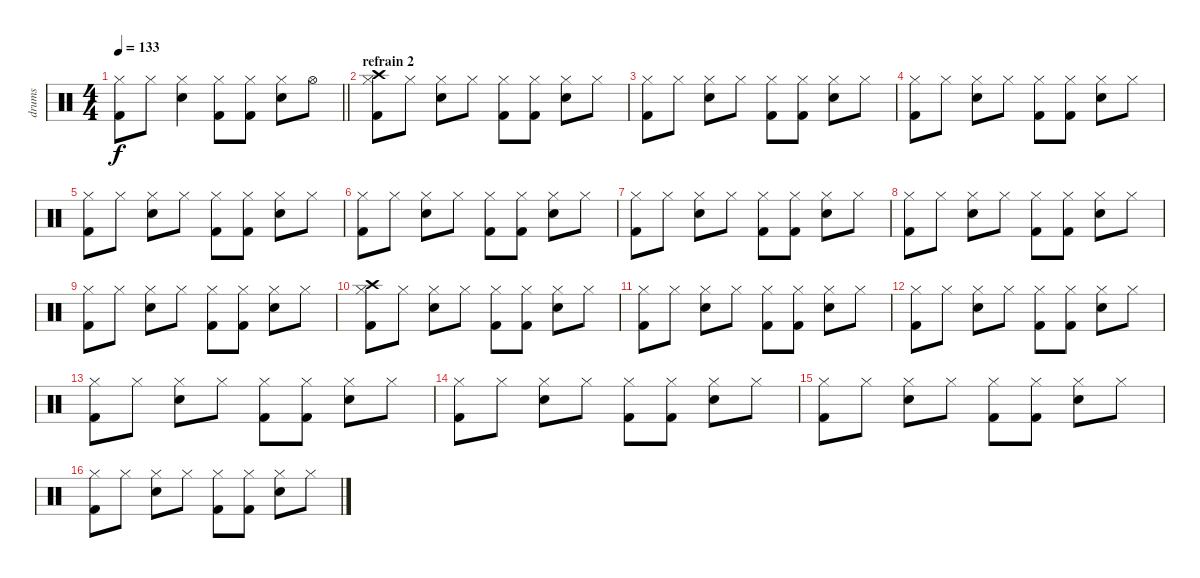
\track ("drums" "drums") {instrument percussion}
\staff {score}
\articulation defaults
\ts (4 4)
\tempo 133
\clef neutral
\barLineRight lightlight
\ks c
("Hi-Hat (closed)" "Kick (hit) 2").8{dy f} "Hi-Hat (closed)".8 ("Hi-Hat (closed)" "Snare (hit) 2").4 ("Hi-Hat (closed)" "Kick (hit) 2").8 ("Hi-Hat (closed)" "Kick (hit) 2").8 ("Hi-Hat (closed)" "Snare (hit) 2").8 "Hi-Hat (open)".8 |
\section ("" "refrain 2")
("Crash high (hit)" "Hi-Hat (closed)" "Kick (hit) 2").8 "Hi-Hat (closed)".8 ("Hi-Hat (closed)" "Snare (hit) 2").8 "Hi-Hat (closed)".8 ("Hi-Hat (closed)" "Kick (hit) 2").8 ("Hi-Hat (closed)" "Kick (hit) 2").8 ("Hi-Hat (closed)" "Snare (hit) 2").8 "Hi-Hat (closed)".8 |
("Hi-Hat (closed)" "Kick (hit) 2").8 "Hi-Hat (closed)".8 ("Hi-Hat (closed)" "Snare (hit) 2").8 "Hi-Hat (closed)".8 ("Hi-Hat (closed)" "Kick (hit) 2").8 ("Hi-Hat (closed)" "Kick (hit) 2").8 ("Hi-Hat (closed)" "Snare (hit) 2").8 "Hi-Hat (closed)".8 |
("Hi-Hat (closed)" "Kick (hit) 2").8 "Hi-Hat (closed)".8 ("Hi-Hat (closed)" "Snare (hit) 2").8 "Hi-Hat (closed)".8 ("Hi-Hat (closed)" "Kick (hit) 2").8 ("Hi-Hat (closed)" "Kick (hit) 2").8 ("Hi-Hat (closed)" "Snare (hit) 2").8 "Hi-Hat (closed)".8 |
("Hi-Hat (closed)" "Kick (hit) 2").8 "Hi-Hat (closed)".8 ("Hi-Hat (closed)" "Snare (hit) 2").8 "Hi-Hat (closed)".8 ("Hi-Hat (closed)" "Kick (hit) 2").8 ("Hi-Hat (closed)" "Kick (hit) 2").8 ("Hi-Hat (closed)" "Snare (hit) 2").8 "Hi-Hat (closed)".8 |
("Hi-Hat (closed)" "Kick (hit) 2").8 "Hi-Hat (closed)".8 ("Hi-Hat (closed)" "Snare (hit) 2").8 "Hi-Hat (closed)".8 ("Hi-Hat (closed)" "Kick (hit) 2").8 ("Hi-Hat (closed)" "Kick (hit) 2").8 ("Hi-Hat (closed)" "Snare (hit) 2").8 "Hi-Hat (closed)".8 |
("Hi-Hat (closed)" "Kick (hit) 2").8 "Hi-Hat (closed)".8 ("Hi-Hat (closed)" "Snare (hit) 2").8 "Hi-Hat (closed)".8 ("Hi-Hat (closed)" "Kick (hit) 2").8 ("Hi-Hat (closed)" "Kick (hit) 2").8 ("Hi-Hat (closed)" "Snare (hit) 2").8 "Hi-Hat (closed)".8 |
("Hi-Hat (closed)" "Kick (hit) 2").8 "Hi-Hat (closed)".8 ("Hi-Hat (closed)" "Snare (hit) 2").8 "Hi-Hat (closed)".8 ("Hi-Hat (closed)" "Kick (hit) 2").8 ("Hi-Hat (closed)" "Kick (hit) 2").8 ("Hi-Hat (closed)" "Snare (hit) 2").8 "Hi-Hat (closed)".8 |
("Hi-Hat (closed)" "Kick (hit) 2").8 "Hi-Hat (closed)".8 ("Hi-Hat (closed)" "Snare (hit) 2").8 "Hi-Hat (closed)".8 ("Hi-Hat (closed)" "Kick (hit) 2").8 ("Hi-Hat (closed)" "Kick (hit) 2").8 ("Hi-Hat (closed)" "Snare (hit) 2").8 "Hi-Hat (closed)".8 |
("Crash high (hit)" "Hi-Hat (closed)" "Kick (hit) 2").8 "Hi-Hat (closed)".8 ("Hi-Hat (closed)" "Snare (hit) 2").8 "Hi-Hat (closed)".8 ("Hi-Hat (closed)" "Kick (hit) 2").8 ("Hi-Hat (closed)" "Kick (hit) 2").8 ("Hi-Hat (closed)" "Snare (hit) 2").8 "Hi-Hat (closed)".8 |
("Hi-Hat (closed)" "Kick (hit) 2").8 "Hi-Hat (closed)".8 ("Hi-Hat (closed)" "Snare (hit) 2").8 "Hi-Hat (closed)".8 ("Hi-Hat (closed)" "Kick (hit) 2").8 ("Hi-Hat (closed)" "Kick (hit) 2").8 ("Hi-Hat (closed)" "Snare (hit) 2").8 "Hi-Hat (closed)".8 |
("Hi-Hat (closed)" "Kick (hit) 2").8 "Hi-Hat (closed)".8 ("Hi-Hat (closed)" "Snare (hit) 2").8 "Hi-Hat (closed)".8 ("Hi-Hat (closed)" "Kick (hit) 2").8 ("Hi-Hat (closed)" "Kick (hit) 2").8 ("Hi-Hat (closed)" "Snare (hit) 2").8 "Hi-Hat (closed)".8 |
("Hi-Hat (closed)" "Kick (hit) 2").8 "Hi-Hat (closed)".8 ("Hi-Hat (closed)" "Snare (hit) 2").8 "Hi-Hat (closed)".8 ("Hi-Hat (closed)" "Kick (hit) 2").8 ("Hi-Hat (closed)" "Kick (hit) 2").8 ("Hi-Hat (closed)" "Snare (hit) 2").8 "Hi-Hat (closed)".8 |
("Hi-Hat (closed)" "Kick (hit) 2").8 "Hi-Hat (closed)".8 ("Hi-Hat (closed)" "Snare (hit) 2").8 "Hi-Hat (closed)".8 ("Hi-Hat (closed)" "Kick (hit) 2").8 ("Hi-Hat (closed)" "Kick (hit) 2").8 ("Hi-Hat (closed)" "Snare (hit) 2").8 "Hi-Hat (closed)".8 |
("Hi-Hat (closed)" "Kick (hit) 2").8 "Hi-Hat (closed)".8 ("Hi-Hat (closed)" "Snare (hit) 2").8 "Hi-Hat (closed)".8 ("Hi-Hat (closed)" "Kick (hit) 2").8 ("Hi-Hat (closed)" "Kick (hit) 2").8 ("Hi-Hat (closed)" "Snare (hit) 2").8 "Hi-Hat (closed)".8 |
("Hi-Hat (closed)" "Kick (hit) 2").8 "Hi-Hat (closed)".8 ("Hi-Hat (closed)" "Snare (hit) 2").8 "Hi-Hat (closed)".8 ("Hi-Hat (closed)" "Kick (hit) 2").8 ("Hi-Hat (closed)" "Kick (hit) 2").8 ("Hi-Hat (closed)" "Snare (hit) 2").8 "Hi-Hat (closed)".8
